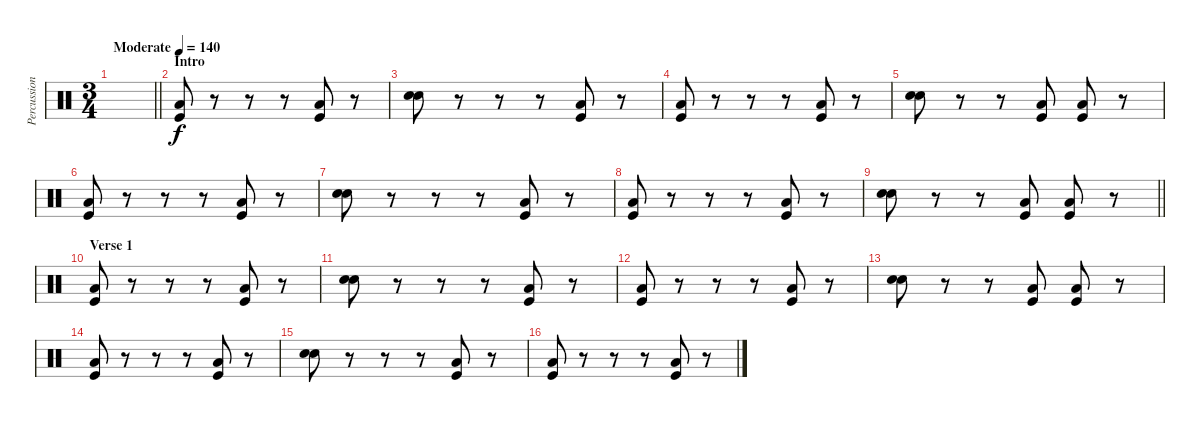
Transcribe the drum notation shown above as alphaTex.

\track ("Percussion" "Percussion") {instrument percussion}
\staff {score}
\articulation defaults
\ts (3 4)
\tempo (140 "Moderate")
\clef neutral
\barLineRight lightlight
\ks c
|
\section ("" "Intro")
("Kick (hit)" "Low Floor Tom (hit)").8 r.8 r.8 r.8 ("Kick (hit)" "Low Floor Tom (hit)").8 r.8 |
("Electric Snare (hit)" "Snare (hit) 2").8 r.8 r.8 r.8 ("Kick (hit)" "Low Floor Tom (hit)").8 r.8 |
("Kick (hit)" "Low Floor Tom (hit)").8 r.8 r.8 r.8 ("Kick (hit)" "Low Floor Tom (hit)").8 r.8 |
("Electric Snare (hit)" "Snare (hit) 2").8 r.8 r.8 ("Kick (hit)" "Low Floor Tom (hit)").8 ("Kick (hit)" "Low Floor Tom (hit)").8 r.8 |
("Kick (hit)" "Low Floor Tom (hit)").8 r.8 r.8 r.8 ("Kick (hit)" "Low Floor Tom (hit)").8 r.8 |
("Electric Snare (hit)" "Snare (hit) 2").8 r.8 r.8 r.8 ("Kick (hit)" "Low Floor Tom (hit)").8 r.8 |
("Kick (hit)" "Low Floor Tom (hit)").8 r.8 r.8 r.8 ("Kick (hit)" "Low Floor Tom (hit)").8 r.8 |
\barLineRight lightlight
("Electric Snare (hit)" "Snare (hit) 2").8 r.8 r.8 ("Kick (hit)" "Low Floor Tom (hit)").8 ("Kick (hit)" "Low Floor Tom (hit)").8 r.8 |
\section ("" "Verse 1 ")
("Kick (hit)" "Low Floor Tom (hit)").8 r.8 r.8 r.8 ("Kick (hit)" "Low Floor Tom (hit)").8 r.8 |
("Electric Snare (hit)" "Snare (hit) 2").8 r.8 r.8 r.8 ("Kick (hit)" "Low Floor Tom (hit)").8 r.8 |
("Kick (hit)" "Low Floor Tom (hit)").8 r.8 r.8 r.8 ("Kick (hit)" "Low Floor Tom (hit)").8 r.8 |
("Electric Snare (hit)" "Snare (hit) 2").8 r.8 r.8 ("Kick (hit)" "Low Floor Tom (hit)").8 ("Kick (hit)" "Low Floor Tom (hit)").8 r.8 |
("Kick (hit)" "Low Floor Tom (hit)").8 r.8 r.8 r.8 ("Kick (hit)" "Low Floor Tom (hit)").8 r.8 |
("Electric Snare (hit)" "Snare (hit) 2").8 r.8 r.8 r.8 ("Kick (hit)" "Low Floor Tom (hit)").8 r.8 |
("Kick (hit)" "Low Floor Tom (hit)").8 r.8 r.8 r.8 ("Kick (hit)" "Low Floor Tom (hit)").8 r.8
